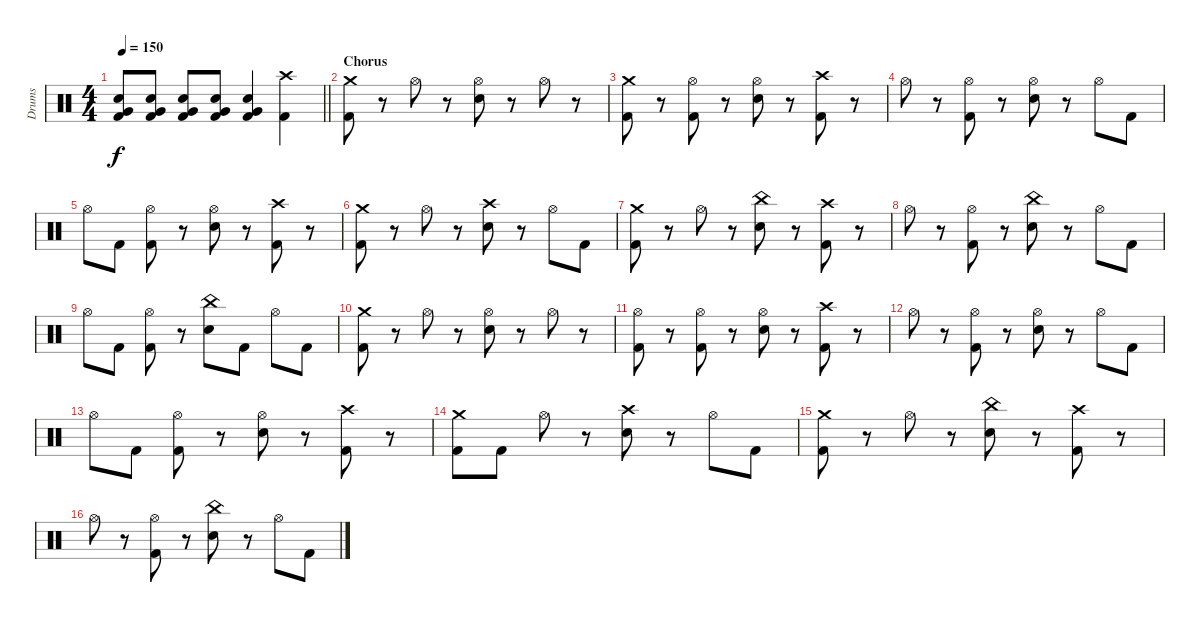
\track ("Drums" "Drums") {instrument percussion}
\staff {score}
\articulation defaults
\ts (4 4)
\tempo 150
\clef neutral
\barLineRight lightlight
\ks c
("Electric Snare (hit)" "Very Low Tom (hit)" "Kick (hit) 2").8{dy f} ("Electric Snare (hit)" "Very Low Tom (hit)" "Kick (hit) 2").8 ("Electric Snare (hit)" "Very Low Tom (hit)" "Kick (hit) 2").8 ("Electric Snare (hit)" "Very Low Tom (hit)" "Kick (hit) 2").8 ("Electric Snare (hit)" "Very Low Tom (hit)" "Kick (hit) 2").4 ("Crash high (hit)" "Kick (hit) 2").4 |
\section ("" "Chorus")
("Crash medium (hit)" "Kick (hit) 2").8 r.8 "Hi-Hat (open)".8 r.8 ("Hi-Hat (open)" "Electric Snare (hit)").8 r.8 "Hi-Hat (open)".8 r.8 |
("Crash medium (hit)" "Kick (hit) 2").8 r.8 ("Hi-Hat (open)" "Kick (hit) 2").8 r.8 ("Hi-Hat (open)" "Electric Snare (hit)").8 r.8 ("Crash high (hit)" "Kick (hit) 2").8 r.8 |
"Hi-Hat (open)".8 r.8 ("Hi-Hat (open)" "Kick (hit) 2").8 r.8 ("Hi-Hat (open)" "Electric Snare (hit)").8 r.8 "Hi-Hat (open)".8 "Kick (hit) 2".8 |
"Hi-Hat (open)".8 "Kick (hit) 2".8 ("Hi-Hat (open)" "Kick (hit) 2").8 r.8 ("Hi-Hat (open)" "Electric Snare (hit)").8 r.8 ("Crash high (hit)" "Kick (hit) 2").8 r.8 |
("Crash medium (hit)" "Kick (hit) 2").8 r.8 "Hi-Hat (open)".8 r.8 ("Crash high (hit)" "Electric Snare (hit)").8 r.8 "Hi-Hat (open)".8 "Kick (hit) 2".8 |
("Crash medium (hit)" "Kick (hit) 2").8 r.8 "Hi-Hat (open)".8 r.8 ("China (hit)" "Electric Snare (hit)").8 r.8 ("Crash high (hit)" "Kick (hit) 2").8 r.8 |
"Hi-Hat (open)".8 r.8 ("Hi-Hat (open)" "Kick (hit) 2").8 r.8 ("China (hit)" "Electric Snare (hit)").8 r.8 "Hi-Hat (open)".8 "Kick (hit) 2".8 |
"Hi-Hat (open)".8 "Kick (hit) 2".8 ("Hi-Hat (open)" "Kick (hit) 2").8 r.8 ("China (hit)" "Electric Snare (hit)").8 "Kick (hit) 2".8 "Hi-Hat (open)".8 "Kick (hit) 2".8 |
("Crash medium (hit)" "Kick (hit) 2").8 r.8 "Hi-Hat (open)".8 r.8 ("Hi-Hat (open)" "Electric Snare (hit)").8 r.8 "Hi-Hat (open)".8 r.8 |
("Hi-Hat (open)" "Kick (hit) 2").8 r.8 ("Hi-Hat (open)" "Kick (hit) 2").8 r.8 ("Hi-Hat (open)" "Electric Snare (hit)").8 r.8 ("Crash high (hit)" "Kick (hit) 2").8 r.8 |
"Hi-Hat (open)".8 r.8 ("Hi-Hat (open)" "Kick (hit) 2").8 r.8 ("Hi-Hat (open)" "Electric Snare (hit)").8 r.8 "Hi-Hat (open)".8 "Kick (hit) 2".8 |
"Hi-Hat (open)".8 "Kick (hit) 2".8 ("Hi-Hat (open)" "Kick (hit) 2").8 r.8 ("Hi-Hat (open)" "Electric Snare (hit)").8 r.8 ("Crash high (hit)" "Kick (hit) 2").8 r.8 |
("Crash medium (hit)" "Kick (hit) 2").8 "Kick (hit) 2".8 "Hi-Hat (open)".8 r.8 ("Crash high (hit)" "Electric Snare (hit)").8 r.8 "Hi-Hat (open)".8 "Kick (hit) 2".8 |
("Crash medium (hit)" "Kick (hit) 2").8 r.8 "Hi-Hat (open)".8 r.8 ("China (hit)" "Electric Snare (hit)").8 r.8 ("Crash high (hit)" "Kick (hit) 2").8 r.8 |
"Hi-Hat (open)".8 r.8 ("Hi-Hat (open)" "Kick (hit) 2").8 r.8 ("China (hit)" "Electric Snare (hit)").8 r.8 "Hi-Hat (open)".8 "Kick (hit) 2".8
